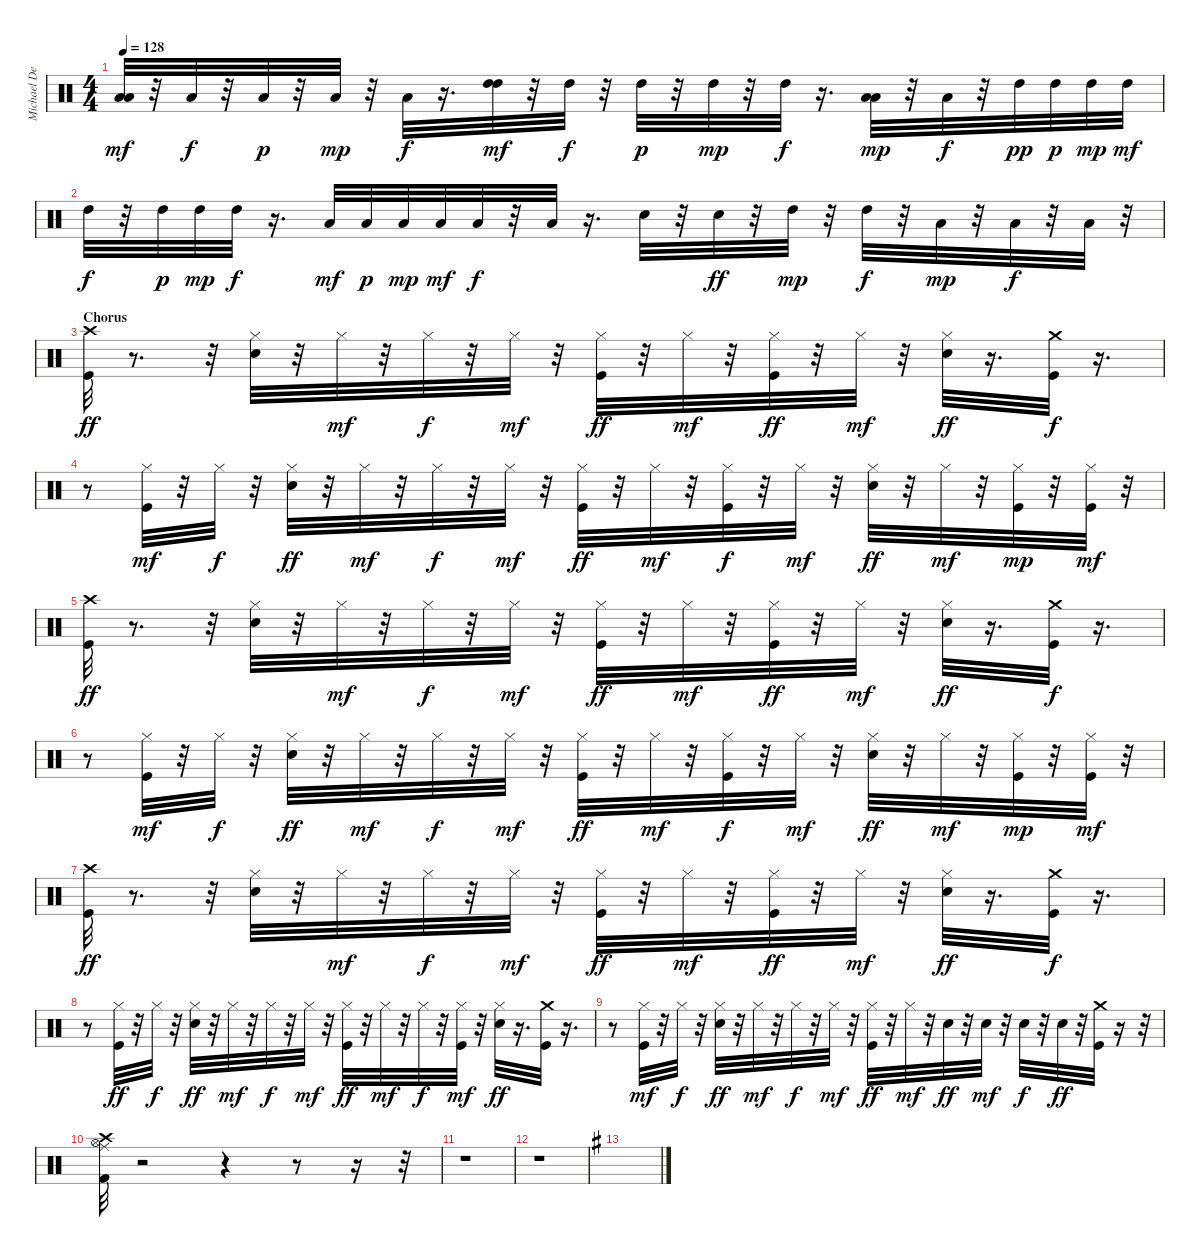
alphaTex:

\track ("Michael DeRosier" "Michael De") {instrument percussion}
\staff {score}
\articulation defaults
\ts (4 4)
\tempo 128
\clef neutral
\ks c
("Low Tom (hit)" "Low Tom (hit)").32{dy mf} r.32 "Low Tom (hit)".32{dy f} r.32 "Low Tom (hit)".32{dy p} r.32 "Low Tom (hit)".32{dy mp} r.32 "Low Tom (hit)".32{dy f} r.16{d} ("High Tom (hit)" "High Tom (hit)").32{dy mf} r.32 "High Tom (hit)".32{dy f} r.32 "High Tom (hit)".32{dy p} r.32 "High Tom (hit)".32{dy mp} r.32 "High Tom (hit)".32{dy f} r.16{d} ("Low Floor Tom (hit)" "Low Floor Tom (hit)").32{dy mp} r.32 "Low Floor Tom (hit)".32{dy f} r.32 "High Tom (hit)".32{dy pp} "High Tom (hit)".32{dy p} "High Tom (hit)".32{dy mp} "High Tom (hit)".32{dy mf} |
"High Tom (hit)".32{dy f} r.32 "High Tom (hit)".32{dy p} "High Tom (hit)".32{dy mp} "High Tom (hit)".32{dy f} r.16{d} "Low Tom (hit)".32{dy mf} "Low Tom (hit)".32{dy p} "Low Tom (hit)".32{dy mp} "Low Tom (hit)".32{dy mf} "Low Tom (hit)".32{dy f} r.32 "Low Floor Tom (hit)".32 r.16{d} "Snare (hit) 2".32 r.32 "Snare (hit) 2".32{dy ff} r.32 "High Tom (hit)".32{dy mp} r.32 "High Tom (hit)".32{dy f} r.32 "Low Tom (hit)".32{dy mp} r.32 "Low Tom (hit)".32{dy f} r.32 "Low Floor Tom (hit)".32 r.32 |
\section ("" "Chorus")
("Kick (hit)" "Crash high (hit)").32{dy ff} r.8{d} r.32 ("Snare (hit) 2" "Hi-Hat (closed)").32 r.32 "Hi-Hat (closed)".32{dy mf} r.32 "Hi-Hat (closed)".32{dy f} r.32 "Hi-Hat (closed)".32{dy mf} r.32 ("Hi-Hat (closed)" "Kick (hit)").32{dy ff} r.32 "Hi-Hat (closed)".32{dy mf} r.32 ("Hi-Hat (closed)" "Kick (hit)").32{dy ff} r.32 "Hi-Hat (closed)".32{dy mf} r.32 ("Snare (hit) 2" "Hi-Hat (closed)").32{dy ff} r.16{d} ("Kick (hit)" "Crash medium (hit)").32{dy f} r.16{d} |
r.8 ("Hi-Hat (closed)" "Kick (hit)").32{dy mf} r.32 "Hi-Hat (closed)".32{dy f} r.32 ("Snare (hit) 2" "Hi-Hat (closed)").32{dy ff} r.32 "Hi-Hat (closed)".32{dy mf} r.32 "Hi-Hat (closed)".32{dy f} r.32 "Hi-Hat (closed)".32{dy mf} r.32 ("Hi-Hat (closed)" "Kick (hit)").32{dy ff} r.32 "Hi-Hat (closed)".32{dy mf} r.32 ("Hi-Hat (closed)" "Kick (hit)").32{dy f} r.32 "Hi-Hat (closed)".32{dy mf} r.32 ("Snare (hit) 2" "Hi-Hat (closed)").32{dy ff} r.32 "Hi-Hat (closed)".32{dy mf} r.32 ("Hi-Hat (closed)" "Kick (hit)").32{dy mp} r.32 ("Hi-Hat (closed)" "Kick (hit)").32{dy mf} r.32 |
("Kick (hit)" "Crash high (hit)").32{dy ff} r.8{d} r.32 ("Snare (hit) 2" "Hi-Hat (closed)").32 r.32 "Hi-Hat (closed)".32{dy mf} r.32 "Hi-Hat (closed)".32{dy f} r.32 "Hi-Hat (closed)".32{dy mf} r.32 ("Kick (hit)" "Hi-Hat (closed)").32{dy ff} r.32 "Hi-Hat (closed)".32{dy mf} r.32 ("Hi-Hat (closed)" "Kick (hit)").32{dy ff} r.32 "Hi-Hat (closed)".32{dy mf} r.32 ("Snare (hit) 2" "Hi-Hat (closed)").32{dy ff} r.16{d} ("Kick (hit)" "Crash medium (hit)").32{dy f} r.16{d} |
r.8 ("Hi-Hat (closed)" "Kick (hit)").32{dy mf} r.32 "Hi-Hat (closed)".32{dy f} r.32 ("Snare (hit) 2" "Hi-Hat (closed)").32{dy ff} r.32 "Hi-Hat (closed)".32{dy mf} r.32 "Hi-Hat (closed)".32{dy f} r.32 "Hi-Hat (closed)".32{dy mf} r.32 ("Hi-Hat (closed)" "Kick (hit)").32{dy ff} r.32 "Hi-Hat (closed)".32{dy mf} r.32 ("Kick (hit)" "Hi-Hat (closed)").32{dy f} r.32 "Hi-Hat (closed)".32{dy mf} r.32 ("Snare (hit) 2" "Hi-Hat (closed)").32{dy ff} r.32 "Hi-Hat (closed)".32{dy mf} r.32 ("Kick (hit)" "Hi-Hat (closed)").32{dy mp} r.32 ("Hi-Hat (closed)" "Kick (hit)").32{dy mf} r.32 |
("Kick (hit)" "Crash high (hit)").32{dy ff} r.8{d} r.32 ("Snare (hit) 2" "Hi-Hat (closed)").32 r.32 "Hi-Hat (closed)".32{dy mf} r.32 "Hi-Hat (closed)".32{dy f} r.32 "Hi-Hat (closed)".32{dy mf} r.32 ("Hi-Hat (closed)" "Kick (hit)").32{dy ff} r.32 "Hi-Hat (closed)".32{dy mf} r.32 ("Kick (hit)" "Hi-Hat (closed)").32{dy ff} r.32 "Hi-Hat (closed)".32{dy mf} r.32 ("Snare (hit) 2" "Hi-Hat (closed)").32{dy ff} r.16{d} ("Kick (hit)" "Crash medium (hit)").32{dy f} r.16{d} |
r.8 ("Hi-Hat (closed)" "Kick (hit)").32{dy ff} r.32 "Hi-Hat (closed)".32{dy f} r.32 ("Snare (hit) 2" "Hi-Hat (closed)").32{dy ff} r.32 "Hi-Hat (closed)".32{dy mf} r.32 "Hi-Hat (closed)".32{dy f} r.32 "Hi-Hat (closed)".32{dy mf} r.32 ("Hi-Hat (closed)" "Kick (hit)").32{dy ff} r.32 "Hi-Hat (closed)".32{dy mf} r.32 "Hi-Hat (closed)".32{dy f} r.32 ("Kick (hit)" "Hi-Hat (closed)").32{dy mf} r.32 ("Snare (hit) 2" "Hi-Hat (closed)").32{dy ff} r.16{d} ("Kick (hit)" "Crash medium (hit)").32 r.16{d} |
r.8 ("Hi-Hat (closed)" "Kick (hit)").32{dy mf} r.32 "Hi-Hat (closed)".32{dy f} r.32 ("Snare (hit) 2" "Hi-Hat (closed)").32{dy ff} r.32 "Hi-Hat (closed)".32{dy mf} r.32 "Hi-Hat (closed)".32{dy f} r.32 "Hi-Hat (closed)".32{dy mf} r.32 ("Hi-Hat (closed)" "Kick (hit)").32{dy ff} r.32 "Hi-Hat (closed)".32{dy mf} r.32 "Snare (hit) 2".32{dy ff} r.32 "Snare (hit) 2".32{dy mf} r.32 "Snare (hit) 2".32{dy f} r.32 "Snare (hit) 2".32{dy ff} r.32 ("Kick (hit)" "Crash medium (hit)").32 r.16 r.32 |
("Kick (hit) 2" "Crash high (hit)" "Hi-Hat (open)" "Ride (middle)").32 r.2 r.4 r.8 r.16 r.32 |
r.1 |
r.1 |
\ks g
